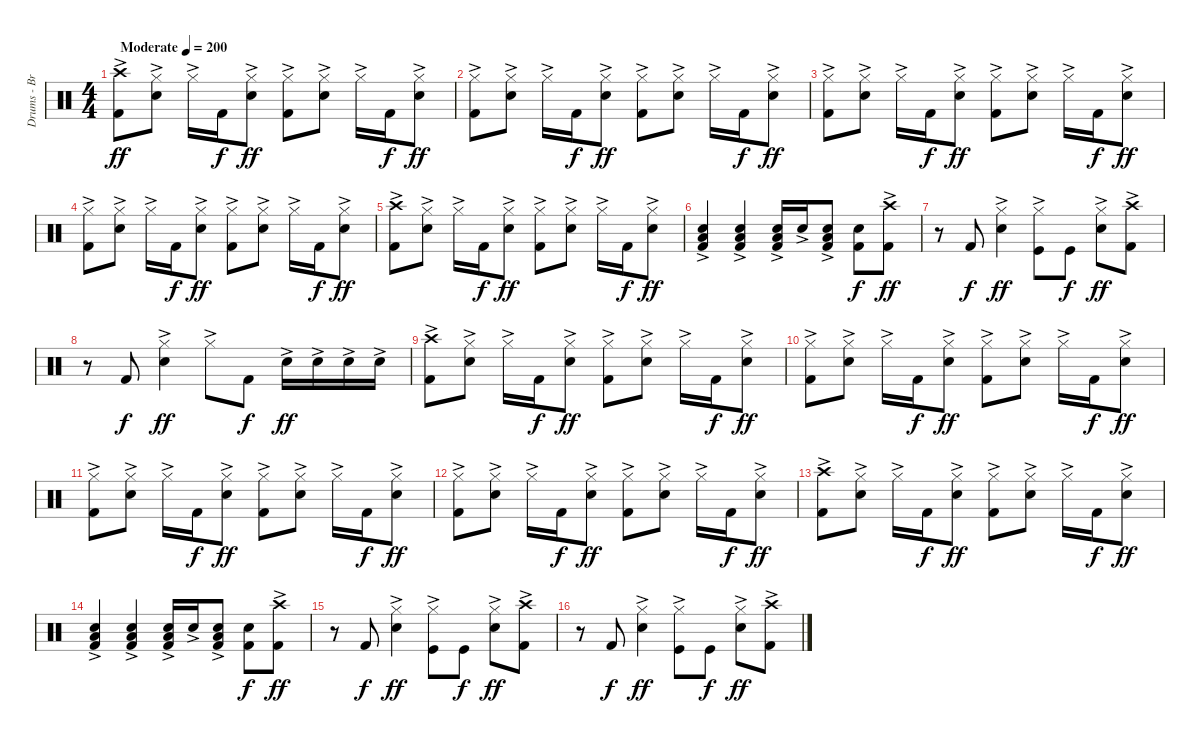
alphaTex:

\track ("Drums - Brandon Barnes" "Drums - Br") {instrument percussion}
\staff {score}
\articulation defaults
\ts (4 4)
\tempo (200 "Moderate")
\clef neutral
\ks c
("Kick (hit) 2" "Crash high (hit)"{ac}).8{dy ff} ("Snare (hit) 2" "Hi-Hat (closed)"{ac}).8 "Hi-Hat (closed)"{ac}.16 "Kick (hit) 2".16{dy f} ("Snare (hit) 2" "Hi-Hat (closed)"{ac}).8{dy ff} ("Hi-Hat (closed)"{ac} "Kick (hit) 2").8 ("Hi-Hat (closed)"{ac} "Snare (hit) 2").8 "Hi-Hat (closed)"{ac}.16 "Kick (hit) 2".16{dy f} ("Snare (hit) 2" "Hi-Hat (closed)"{ac}).8{dy ff} |
("Hi-Hat (closed)"{ac} "Kick (hit) 2").8 ("Hi-Hat (closed)"{ac} "Snare (hit) 2").8 "Hi-Hat (closed)"{ac}.16 "Kick (hit) 2".16{dy f} ("Snare (hit) 2" "Hi-Hat (closed)"{ac}).8{dy ff} ("Hi-Hat (closed)"{ac} "Kick (hit) 2").8 ("Hi-Hat (closed)"{ac} "Snare (hit) 2").8 "Hi-Hat (closed)"{ac}.16 "Kick (hit) 2".16{dy f} ("Snare (hit) 2" "Hi-Hat (closed)"{ac}).8{dy ff} |
("Hi-Hat (closed)"{ac} "Kick (hit) 2").8 ("Hi-Hat (closed)"{ac} "Snare (hit) 2").8 "Hi-Hat (closed)"{ac}.16 "Kick (hit) 2".16{dy f} ("Snare (hit) 2" "Hi-Hat (closed)"{ac}).8{dy ff} ("Hi-Hat (closed)"{ac} "Kick (hit) 2").8 ("Hi-Hat (closed)"{ac} "Snare (hit) 2").8 "Hi-Hat (closed)"{ac}.16 "Kick (hit) 2".16{dy f} ("Snare (hit) 2" "Hi-Hat (closed)"{ac}).8{dy ff} |
("Hi-Hat (closed)"{ac} "Kick (hit) 2").8 ("Hi-Hat (closed)"{ac} "Snare (hit) 2").8 "Hi-Hat (closed)"{ac}.16 "Kick (hit) 2".16{dy f} ("Snare (hit) 2" "Hi-Hat (closed)"{ac}).8{dy ff} ("Hi-Hat (closed)"{ac} "Kick (hit) 2").8 ("Hi-Hat (closed)"{ac} "Snare (hit) 2").8 "Hi-Hat (closed)"{ac}.16 "Kick (hit) 2".16{dy f} ("Snare (hit) 2" "Hi-Hat (closed)"{ac}).8{dy ff} |
("Kick (hit) 2" "Crash high (hit)"{ac}).8 ("Snare (hit) 2" "Hi-Hat (closed)"{ac}).8 "Hi-Hat (closed)"{ac}.16 "Kick (hit) 2".16{dy f} ("Snare (hit) 2" "Hi-Hat (closed)"{ac}).8{dy ff} ("Hi-Hat (closed)"{ac} "Kick (hit) 2").8 ("Hi-Hat (closed)"{ac} "Snare (hit) 2").8 "Hi-Hat (closed)"{ac}.16 "Kick (hit) 2".16{dy f} ("Snare (hit) 2" "Hi-Hat (closed)"{ac}).8{dy ff} |
("Snare (hit) 2"{ac} "Kick (hit) 2" "Low Floor Tom (hit)").4 ("Low Floor Tom (hit)" "Snare (hit) 2"{ac} "Kick (hit) 2").4 ("Kick (hit) 2" "Low Floor Tom (hit)" "Electric Snare (hit)"{ac}).16 "Snare (hit) 2"{ac}.16 ("Snare (hit) 2"{ac} "Kick (hit) 2" "Low Floor Tom (hit)").8 ("Snare (hit) 2" "Kick (hit) 2").8{dy f} ("Crash high (hit)"{ac} "Kick (hit) 2").8{dy ff} |
r.8 "Kick (hit) 2".8{dy f} ("Snare (hit) 2" "Hi-Hat (closed)"{ac}).4{dy ff} ("Hi-Hat (closed)"{ac} "Kick (hit)").8 "Kick (hit)".8{dy f} ("Hi-Hat (closed)"{ac} "Snare (hit) 2").8{dy ff} ("Crash high (hit)"{ac} "Kick (hit) 2").8 |
r.8 "Kick (hit) 2".8{dy f} ("Snare (hit) 2" "Hi-Hat (closed)"{ac}).4{dy ff} "Hi-Hat (closed)"{ac}.8 "Kick (hit) 2".8{dy f} "Snare (hit) 2"{ac}.16{dy ff} "Snare (hit) 2"{ac}.16 "Snare (hit) 2"{ac}.16 "Snare (hit) 2"{ac}.16 |
("Kick (hit) 2" "Crash high (hit)"{ac}).8 ("Snare (hit) 2" "Hi-Hat (closed)"{ac}).8 "Hi-Hat (closed)"{ac}.16 "Kick (hit) 2".16{dy f} ("Snare (hit) 2" "Hi-Hat (closed)"{ac}).8{dy ff} ("Hi-Hat (closed)"{ac} "Kick (hit) 2").8 ("Hi-Hat (closed)"{ac} "Snare (hit) 2").8 "Hi-Hat (closed)"{ac}.16 "Kick (hit) 2".16{dy f} ("Snare (hit) 2" "Hi-Hat (closed)"{ac}).8{dy ff} |
("Hi-Hat (closed)"{ac} "Kick (hit) 2").8 ("Hi-Hat (closed)"{ac} "Snare (hit) 2").8 "Hi-Hat (closed)"{ac}.16 "Kick (hit) 2".16{dy f} ("Snare (hit) 2" "Hi-Hat (closed)"{ac}).8{dy ff} ("Hi-Hat (closed)"{ac} "Kick (hit) 2").8 ("Hi-Hat (closed)"{ac} "Snare (hit) 2").8 "Hi-Hat (closed)"{ac}.16 "Kick (hit) 2".16{dy f} ("Snare (hit) 2" "Hi-Hat (closed)"{ac}).8{dy ff} |
("Hi-Hat (closed)"{ac} "Kick (hit) 2").8 ("Hi-Hat (closed)"{ac} "Snare (hit) 2").8 "Hi-Hat (closed)"{ac}.16 "Kick (hit) 2".16{dy f} ("Snare (hit) 2" "Hi-Hat (closed)"{ac}).8{dy ff} ("Hi-Hat (closed)"{ac} "Kick (hit) 2").8 ("Hi-Hat (closed)"{ac} "Snare (hit) 2").8 "Hi-Hat (closed)"{ac}.16 "Kick (hit) 2".16{dy f} ("Snare (hit) 2" "Hi-Hat (closed)"{ac}).8{dy ff} |
("Hi-Hat (closed)"{ac} "Kick (hit) 2").8 ("Hi-Hat (closed)"{ac} "Snare (hit) 2").8 "Hi-Hat (closed)"{ac}.16 "Kick (hit) 2".16{dy f} ("Snare (hit) 2" "Hi-Hat (closed)"{ac}).8{dy ff} ("Hi-Hat (closed)"{ac} "Kick (hit) 2").8 ("Hi-Hat (closed)"{ac} "Snare (hit) 2").8 "Hi-Hat (closed)"{ac}.16 "Kick (hit) 2".16{dy f} ("Snare (hit) 2" "Hi-Hat (closed)"{ac}).8{dy ff} |
("Kick (hit) 2" "Crash high (hit)"{ac}).8 ("Snare (hit) 2" "Hi-Hat (closed)"{ac}).8 "Hi-Hat (closed)"{ac}.16 "Kick (hit) 2".16{dy f} ("Snare (hit) 2" "Hi-Hat (closed)"{ac}).8{dy ff} ("Hi-Hat (closed)"{ac} "Kick (hit) 2").8 ("Hi-Hat (closed)"{ac} "Snare (hit) 2").8 "Hi-Hat (closed)"{ac}.16 "Kick (hit) 2".16{dy f} ("Snare (hit) 2" "Hi-Hat (closed)"{ac}).8{dy ff} |
("Snare (hit) 2"{ac} "Kick (hit) 2" "Low Floor Tom (hit)").4 ("Low Floor Tom (hit)" "Snare (hit) 2"{ac} "Kick (hit) 2").4 ("Kick (hit) 2" "Low Floor Tom (hit)" "Electric Snare (hit)"{ac}).16 "Snare (hit) 2"{ac}.16 ("Snare (hit) 2"{ac} "Kick (hit) 2" "Low Floor Tom (hit)").8 ("Snare (hit) 2" "Kick (hit) 2").8{dy f} ("Crash high (hit)"{ac} "Kick (hit) 2").8{dy ff} |
r.8 "Kick (hit) 2".8{dy f} ("Snare (hit) 2" "Hi-Hat (closed)"{ac}).4{dy ff} ("Hi-Hat (closed)"{ac} "Kick (hit)").8 "Kick (hit)".8{dy f} ("Hi-Hat (closed)"{ac} "Snare (hit) 2").8{dy ff} ("Crash high (hit)"{ac} "Kick (hit) 2").8 |
r.8 "Kick (hit) 2".8{dy f} ("Snare (hit) 2" "Hi-Hat (closed)"{ac}).4{dy ff} ("Hi-Hat (closed)"{ac} "Kick (hit)").8 "Kick (hit)".8{dy f} ("Hi-Hat (closed)"{ac} "Snare (hit) 2").8{dy ff} ("Crash high (hit)"{ac} "Kick (hit) 2").8
